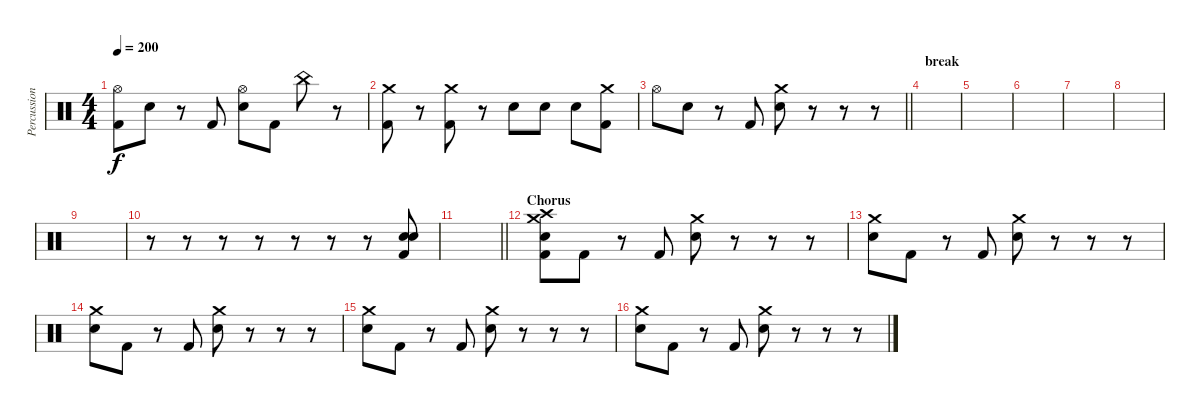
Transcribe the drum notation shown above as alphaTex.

\track ("Percussion" "Percussion") {instrument percussion}
\staff {score}
\articulation defaults
\ts (4 4)
\tempo 200
\clef neutral
\ks c
("Hi-Hat (open)" "Kick (hit) 2").8{dy f} "Electric Snare (hit)".8 r.8 "Kick (hit) 2".8 ("Hi-Hat (open)" "Electric Snare (hit)").8 "Kick (hit) 2".8 "China (hit)".8 r.8 |
("Crash medium (hit)" "Kick (hit) 2").8 r.8 ("Crash medium (hit)" "Kick (hit) 2").8 r.8 "Electric Snare (hit)".8 "Electric Snare (hit)".8 "Electric Snare (hit)".8 ("Crash medium (hit)" "Kick (hit) 2").8 |
\barLineRight lightlight "Hi-Hat (open)".8 "Electric Snare (hit)".8
r.8 "Kick (hit) 2".8 ("Crash medium (hit)" "Electric Snare (hit)").8 r.8 r.8 r.8 |
\section ("" "break")
|
|
|
|
|
|
r.8 r.8 r.8 r.8 r.8 r.8 r.8 ("Electric Snare (hit)" "Electric Snare (hit)" "Kick (hit) 2").8{bd 60} |
\barLineRight lightlight
|
\section ("" "Chorus")
("Crash high (hit)" "Crash medium (hit)" "Electric Snare (hit)" "Kick (hit) 2").8 "Kick (hit) 2".8 r.8 "Kick (hit) 2".8 ("Crash medium (hit)" "Electric Snare (hit)").8 r.8 r.8 r.8 |
("Crash medium (hit)" "Electric Snare (hit)").8 "Kick (hit) 2".8 r.8 "Kick (hit) 2".8 ("Crash medium (hit)" "Electric Snare (hit)").8 r.8 r.8 r.8 |
("Crash medium (hit)" "Electric Snare (hit)").8 "Kick (hit) 2".8 r.8 "Kick (hit) 2".8 ("Crash medium (hit)" "Electric Snare (hit)").8 r.8 r.8 r.8 |
("Crash medium (hit)" "Electric Snare (hit)").8 "Kick (hit) 2".8 r.8 "Kick (hit) 2".8 ("Crash medium (hit)" "Electric Snare (hit)").8 r.8 r.8 r.8 |
("Crash medium (hit)" "Electric Snare (hit)").8 "Kick (hit) 2".8 r.8 "Kick (hit) 2".8 ("Crash medium (hit)" "Electric Snare (hit)").8 r.8 r.8 r.8
